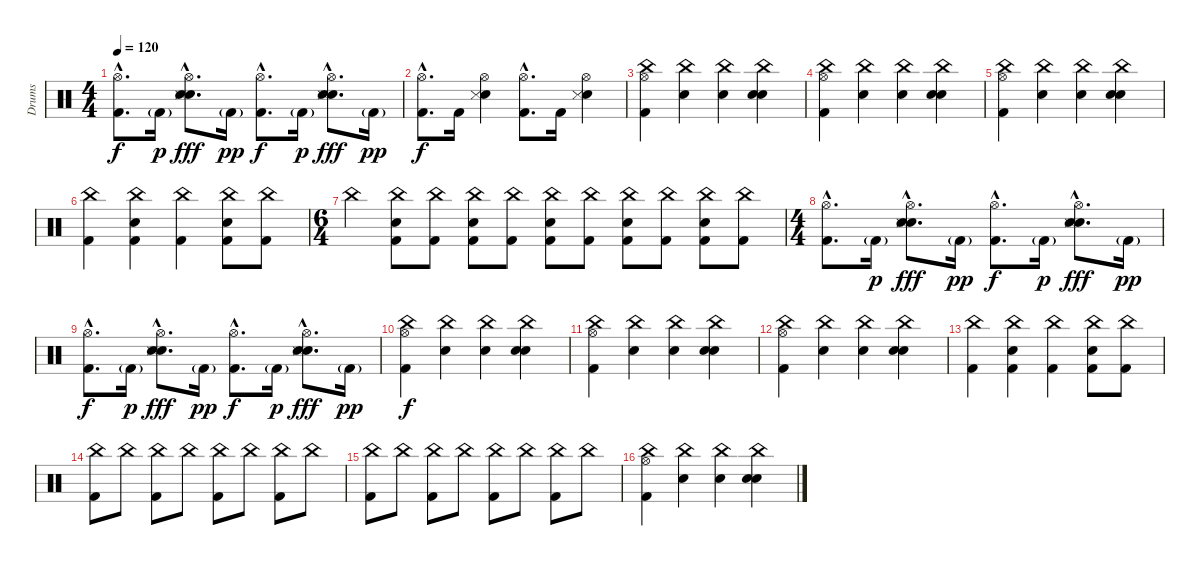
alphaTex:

\track ("Drums" "Drums") {instrument percussion}
\staff {score}
\articulation defaults
\ts (4 4)
\tempo 120
\clef neutral
\ks c
("Kick (hit) 2"{hac} "Hi-Hat (open)"{hac}).8{d dy f} "Kick (hit) 2"{g}.16{dy p} ("Hand Clap (hit)"{hac} "Electric Snare (hit)"{hac} "Hi-Hat (open)"{hac} "Snare (side stick) 3"{hac}).8{d dy fff} "Kick (hit) 2"{g}.16{dy pp} ("Kick (hit) 2"{hac} "Hi-Hat (open)"{hac}).8{d dy f} "Kick (hit) 2"{g}.16{dy p} ("Hand Clap (hit)"{hac} "Electric Snare (hit)"{hac} "Hi-Hat (open)"{hac} "Snare (side stick) 3"{hac}).8{d dy fff} "Kick (hit) 2"{g}.16{dy pp} |
("Kick (hit) 2"{hac} "Hi-Hat (open)"{hac}).8{d dy f} "Kick (hit) 2".16 ("Electric Snare (hit)" "Hi-Hat (open)" "Snare (side stick) 3").4 ("Kick (hit) 2"{hac} "Hi-Hat (open)"{hac}).8{d} "Kick (hit) 2".16 ("Electric Snare (hit)" "Hi-Hat (open)" "Snare (side stick) 3").4 |
("China (hit)" "Kick (hit) 2" "Hi-Hat (open)").4 ("China (hit)" "Electric Snare (hit)").4 ("China (hit)" "Electric Snare (hit)").4 ("China (hit)" "Electric Snare (hit)" "Hand Clap (hit)").4 |
("China (hit)" "Kick (hit) 2" "Hi-Hat (open)").4 ("China (hit)" "Electric Snare (hit)").4 ("China (hit)" "Electric Snare (hit)").4 ("China (hit)" "Electric Snare (hit)" "Hand Clap (hit)").4 |
("China (hit)" "Kick (hit) 2" "Hi-Hat (open)").4 ("China (hit)" "Electric Snare (hit)").4 ("China (hit)" "Electric Snare (hit)").4 ("China (hit)" "Electric Snare (hit)" "Hand Clap (hit)").4 |
("China (hit)" "Kick (hit) 2").4 ("China (hit)" "Electric Snare (hit)" "Kick (hit) 2").4 ("China (hit)" "Kick (hit) 2").4 ("China (hit)" "Electric Snare (hit)" "Kick (hit) 2").8 ("China (hit)" "Kick (hit) 2").8 |
\ts (6 4)
"China (hit)".4 ("China (hit)" "Kick (hit) 2" "Electric Snare (hit)").8 ("China (hit)" "Kick (hit) 2").8 ("China (hit)" "Kick (hit) 2" "Electric Snare (hit)").8 ("China (hit)" "Kick (hit) 2").8 ("China (hit)" "Kick (hit) 2" "Electric Snare (hit)").8 ("China (hit)" "Kick (hit) 2").8 ("China (hit)" "Kick (hit) 2" "Electric Snare (hit)").8 ("China (hit)" "Kick (hit) 2").8 ("China (hit)" "Kick (hit) 2" "Electric Snare (hit)").8 ("China (hit)" "Kick (hit) 2").8 |
\ts (4 4)
("Kick (hit) 2"{hac} "Hi-Hat (open)"{hac}).8{d} "Kick (hit) 2"{g}.16{dy p} ("Hand Clap (hit)"{hac} "Electric Snare (hit)"{hac} "Hi-Hat (open)"{hac} "Snare (side stick) 3"{hac}).8{d dy fff} "Kick (hit) 2"{g}.16{dy pp} ("Kick (hit) 2"{hac} "Hi-Hat (open)"{hac}).8{d dy f} "Kick (hit) 2"{g}.16{dy p} ("Hand Clap (hit)"{hac} "Electric Snare (hit)"{hac} "Hi-Hat (open)"{hac} "Snare (side stick) 3"{hac}).8{d dy fff} "Kick (hit) 2"{g}.16{dy pp} |
("Kick (hit) 2"{hac} "Hi-Hat (open)"{hac}).8{d dy f} "Kick (hit) 2"{g}.16{dy p} ("Hand Clap (hit)"{hac} "Electric Snare (hit)"{hac} "Hi-Hat (open)"{hac} "Snare (side stick) 3"{hac}).8{d dy fff} "Kick (hit) 2"{g}.16{dy pp} ("Kick (hit) 2"{hac} "Hi-Hat (open)"{hac}).8{d dy f} "Kick (hit) 2"{g}.16{dy p} ("Hand Clap (hit)"{hac} "Electric Snare (hit)"{hac} "Hi-Hat (open)"{hac} "Snare (side stick) 3"{hac}).8{d dy fff} "Kick (hit) 2"{g}.16{dy pp} |
("China (hit)" "Kick (hit) 2" "Hi-Hat (open)").4{dy f} ("China (hit)" "Electric Snare (hit)").4 ("China (hit)" "Electric Snare (hit)").4 ("China (hit)" "Electric Snare (hit)" "Hand Clap (hit)").4 |
("China (hit)" "Kick (hit) 2" "Hi-Hat (open)").4 ("China (hit)" "Electric Snare (hit)").4 ("China (hit)" "Electric Snare (hit)").4 ("China (hit)" "Electric Snare (hit)" "Hand Clap (hit)").4 |
("China (hit)" "Kick (hit) 2" "Hi-Hat (open)").4 ("China (hit)" "Electric Snare (hit)").4 ("China (hit)" "Electric Snare (hit)").4 ("China (hit)" "Electric Snare (hit)" "Hand Clap (hit)").4 |
("China (hit)" "Kick (hit) 2").4 ("China (hit)" "Electric Snare (hit)" "Kick (hit) 2").4 ("China (hit)" "Kick (hit) 2").4 ("China (hit)" "Electric Snare (hit)" "Kick (hit) 2").8 ("China (hit)" "Kick (hit) 2").8 |
("China (hit)" "Kick (hit) 2").8 "China (hit)".8 ("China (hit)" "Kick (hit) 2").8 "China (hit)".8 ("China (hit)" "Kick (hit) 2").8 "China (hit)".8 ("China (hit)" "Kick (hit) 2").8 "China (hit)".8 |
("China (hit)" "Kick (hit) 2").8 "China (hit)".8 ("China (hit)" "Kick (hit) 2").8 "China (hit)".8 ("China (hit)" "Kick (hit) 2").8 "China (hit)".8 ("China (hit)" "Kick (hit) 2").8 "China (hit)".8 |
("China (hit)" "Kick (hit) 2" "Hi-Hat (open)").4 ("China (hit)" "Electric Snare (hit)").4 ("China (hit)" "Electric Snare (hit)").4 ("China (hit)" "Electric Snare (hit)" "Hand Clap (hit)").4
